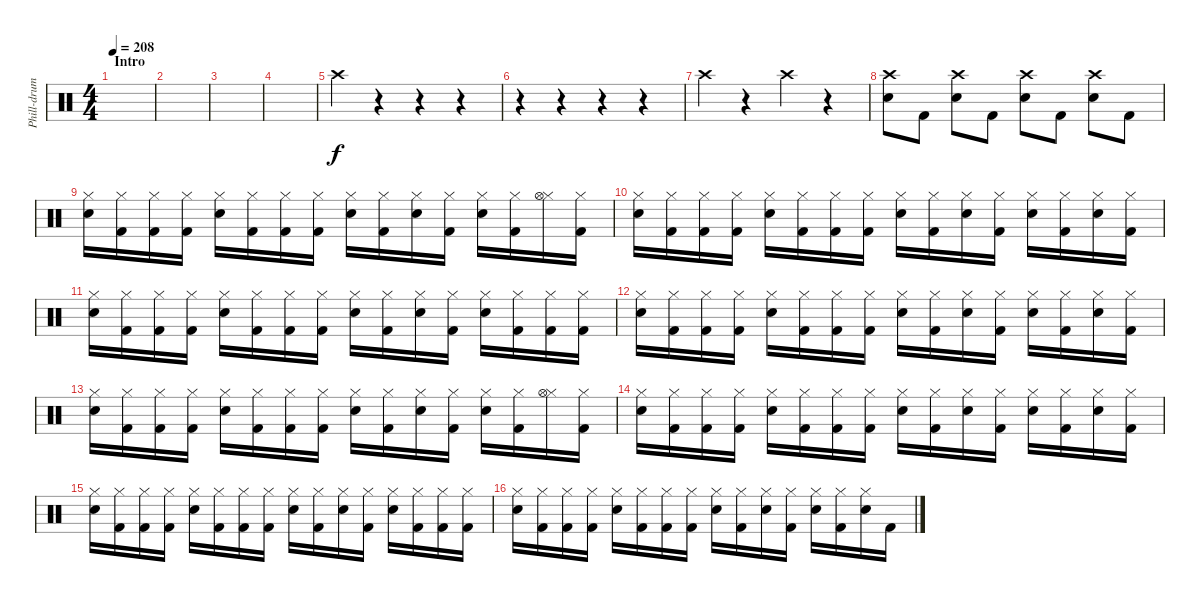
\track ("Phill-drum" "Phill-drum") {instrument percussion}
\staff {score}
\articulation defaults
\ts (4 4)
\section ("" "Intro")
\tempo 208
\clef neutral
\ks c
|
|
|
|
"Crash high (hit)".4 r.4 r.4 r.4 |
r.4 r.4 r.4 r.4 |
"Crash high (hit)".4 r.4 "Crash high (hit)".4 r.4 |
("Electric Snare (hit)" "Crash high (hit)").8 "Kick (hit) 2".8 ("Electric Snare (hit)" "Crash high (hit)").8 "Kick (hit) 2".8 ("Electric Snare (hit)" "Crash high (hit)").8 "Kick (hit) 2".8 ("Electric Snare (hit)" "Crash high (hit)").8 "Kick (hit) 2".8 |
("Hi-Hat (closed)" "Electric Snare (hit)").16 ("Hi-Hat (closed)" "Kick (hit) 2").16 ("Hi-Hat (closed)" "Kick (hit) 2").16 ("Hi-Hat (closed)" "Kick (hit) 2").16 ("Hi-Hat (closed)" "Electric Snare (hit)").16 ("Hi-Hat (closed)" "Kick (hit) 2").16 ("Hi-Hat (closed)" "Kick (hit) 2").16 ("Hi-Hat (closed)" "Kick (hit) 2").16 ("Hi-Hat (closed)" "Electric Snare (hit)").16 ("Hi-Hat (closed)" "Kick (hit) 2").16 ("Hi-Hat (closed)" "Electric Snare (hit)").16 ("Hi-Hat (closed)" "Kick (hit) 2").16 ("Hi-Hat (closed)" "Electric Snare (hit)").16 ("Hi-Hat (closed)" "Kick (hit) 2").16 ("Hi-Hat (closed)" "Hi-Hat (open)").16 ("Hi-Hat (closed)" "Kick (hit) 2").16 |
("Hi-Hat (closed)" "Electric Snare (hit)").16 ("Hi-Hat (closed)" "Kick (hit) 2").16 ("Hi-Hat (closed)" "Kick (hit) 2").16 ("Hi-Hat (closed)" "Kick (hit) 2").16 ("Hi-Hat (closed)" "Electric Snare (hit)").16 ("Hi-Hat (closed)" "Kick (hit) 2").16 ("Hi-Hat (closed)" "Kick (hit) 2").16 ("Hi-Hat (closed)" "Kick (hit) 2").16 ("Hi-Hat (closed)" "Electric Snare (hit)").16 ("Hi-Hat (closed)" "Kick (hit) 2").16 ("Hi-Hat (closed)" "Electric Snare (hit)").16 ("Hi-Hat (closed)" "Kick (hit) 2").16 ("Hi-Hat (closed)" "Electric Snare (hit)").16 ("Hi-Hat (closed)" "Kick (hit) 2").16 ("Hi-Hat (closed)" "Electric Snare (hit)").16 ("Hi-Hat (closed)" "Kick (hit) 2").16 |
("Hi-Hat (closed)" "Electric Snare (hit)").16 ("Hi-Hat (closed)" "Kick (hit) 2").16 ("Hi-Hat (closed)" "Kick (hit) 2").16 ("Hi-Hat (closed)" "Kick (hit) 2").16 ("Hi-Hat (closed)" "Electric Snare (hit)").16 ("Hi-Hat (closed)" "Kick (hit) 2").16 ("Hi-Hat (closed)" "Kick (hit) 2").16 ("Hi-Hat (closed)" "Kick (hit) 2").16 ("Hi-Hat (closed)" "Electric Snare (hit)").16 ("Hi-Hat (closed)" "Kick (hit) 2").16 ("Hi-Hat (closed)" "Electric Snare (hit)").16 ("Hi-Hat (closed)" "Kick (hit) 2").16 ("Hi-Hat (closed)" "Electric Snare (hit)").16 ("Hi-Hat (closed)" "Kick (hit) 2").16 ("Hi-Hat (closed)" "Kick (hit) 2").16 ("Hi-Hat (closed)" "Kick (hit) 2").16 |
("Hi-Hat (closed)" "Electric Snare (hit)").16 ("Hi-Hat (closed)" "Kick (hit) 2").16 ("Hi-Hat (closed)" "Kick (hit) 2").16 ("Hi-Hat (closed)" "Kick (hit) 2").16 ("Hi-Hat (closed)" "Electric Snare (hit)").16 ("Hi-Hat (closed)" "Kick (hit) 2").16 ("Hi-Hat (closed)" "Kick (hit) 2").16 ("Hi-Hat (closed)" "Kick (hit) 2").16 ("Hi-Hat (closed)" "Electric Snare (hit)").16 ("Hi-Hat (closed)" "Kick (hit) 2").16 ("Hi-Hat (closed)" "Electric Snare (hit)").16 ("Hi-Hat (closed)" "Kick (hit) 2").16 ("Hi-Hat (closed)" "Electric Snare (hit)").16 ("Hi-Hat (closed)" "Kick (hit) 2").16 ("Hi-Hat (closed)" "Electric Snare (hit)").16 ("Hi-Hat (closed)" "Kick (hit) 2").16 |
("Hi-Hat (closed)" "Electric Snare (hit)").16 ("Hi-Hat (closed)" "Kick (hit) 2").16 ("Hi-Hat (closed)" "Kick (hit) 2").16 ("Hi-Hat (closed)" "Kick (hit) 2").16 ("Hi-Hat (closed)" "Electric Snare (hit)").16 ("Hi-Hat (closed)" "Kick (hit) 2").16 ("Hi-Hat (closed)" "Kick (hit) 2").16 ("Hi-Hat (closed)" "Kick (hit) 2").16 ("Hi-Hat (closed)" "Electric Snare (hit)").16 ("Hi-Hat (closed)" "Kick (hit) 2").16 ("Hi-Hat (closed)" "Electric Snare (hit)").16 ("Hi-Hat (closed)" "Kick (hit) 2").16 ("Hi-Hat (closed)" "Electric Snare (hit)").16 ("Hi-Hat (closed)" "Kick (hit) 2").16 ("Hi-Hat (closed)" "Hi-Hat (open)").16 ("Hi-Hat (closed)" "Kick (hit) 2").16 |
("Hi-Hat (closed)" "Electric Snare (hit)").16 ("Hi-Hat (closed)" "Kick (hit) 2").16 ("Hi-Hat (closed)" "Kick (hit) 2").16 ("Hi-Hat (closed)" "Kick (hit) 2").16 ("Hi-Hat (closed)" "Electric Snare (hit)").16 ("Hi-Hat (closed)" "Kick (hit) 2").16 ("Hi-Hat (closed)" "Kick (hit) 2").16 ("Hi-Hat (closed)" "Kick (hit) 2").16 ("Hi-Hat (closed)" "Electric Snare (hit)").16 ("Hi-Hat (closed)" "Kick (hit) 2").16 ("Hi-Hat (closed)" "Electric Snare (hit)").16 ("Hi-Hat (closed)" "Kick (hit) 2").16 ("Hi-Hat (closed)" "Electric Snare (hit)").16 ("Hi-Hat (closed)" "Kick (hit) 2").16 ("Hi-Hat (closed)" "Electric Snare (hit)").16 ("Hi-Hat (closed)" "Kick (hit) 2").16 |
("Hi-Hat (closed)" "Electric Snare (hit)").16 ("Hi-Hat (closed)" "Kick (hit) 2").16 ("Hi-Hat (closed)" "Kick (hit) 2").16 ("Hi-Hat (closed)" "Kick (hit) 2").16 ("Hi-Hat (closed)" "Electric Snare (hit)").16 ("Hi-Hat (closed)" "Kick (hit) 2").16 ("Hi-Hat (closed)" "Kick (hit) 2").16 ("Hi-Hat (closed)" "Kick (hit) 2").16 ("Hi-Hat (closed)" "Electric Snare (hit)").16 ("Hi-Hat (closed)" "Kick (hit) 2").16 ("Hi-Hat (closed)" "Electric Snare (hit)").16 ("Hi-Hat (closed)" "Kick (hit) 2").16 ("Hi-Hat (closed)" "Electric Snare (hit)").16 ("Hi-Hat (closed)" "Kick (hit) 2").16 ("Hi-Hat (closed)" "Kick (hit) 2").16 ("Hi-Hat (closed)" "Kick (hit) 2").16 |
("Hi-Hat (closed)" "Electric Snare (hit)").16 ("Hi-Hat (closed)" "Kick (hit) 2").16 ("Hi-Hat (closed)" "Kick (hit) 2").16 ("Hi-Hat (closed)" "Kick (hit) 2").16 ("Hi-Hat (closed)" "Electric Snare (hit)").16 ("Hi-Hat (closed)" "Kick (hit) 2").16 ("Hi-Hat (closed)" "Kick (hit) 2").16 ("Hi-Hat (closed)" "Kick (hit) 2").16 ("Hi-Hat (closed)" "Electric Snare (hit)").16 ("Hi-Hat (closed)" "Kick (hit) 2").16 ("Hi-Hat (closed)" "Electric Snare (hit)").16 ("Hi-Hat (closed)" "Kick (hit) 2").16 ("Hi-Hat (closed)" "Electric Snare (hit)").16 ("Hi-Hat (closed)" "Kick (hit) 2").16 ("Hi-Hat (closed)" "Electric Snare (hit)").16 "Kick (hit) 2".16
